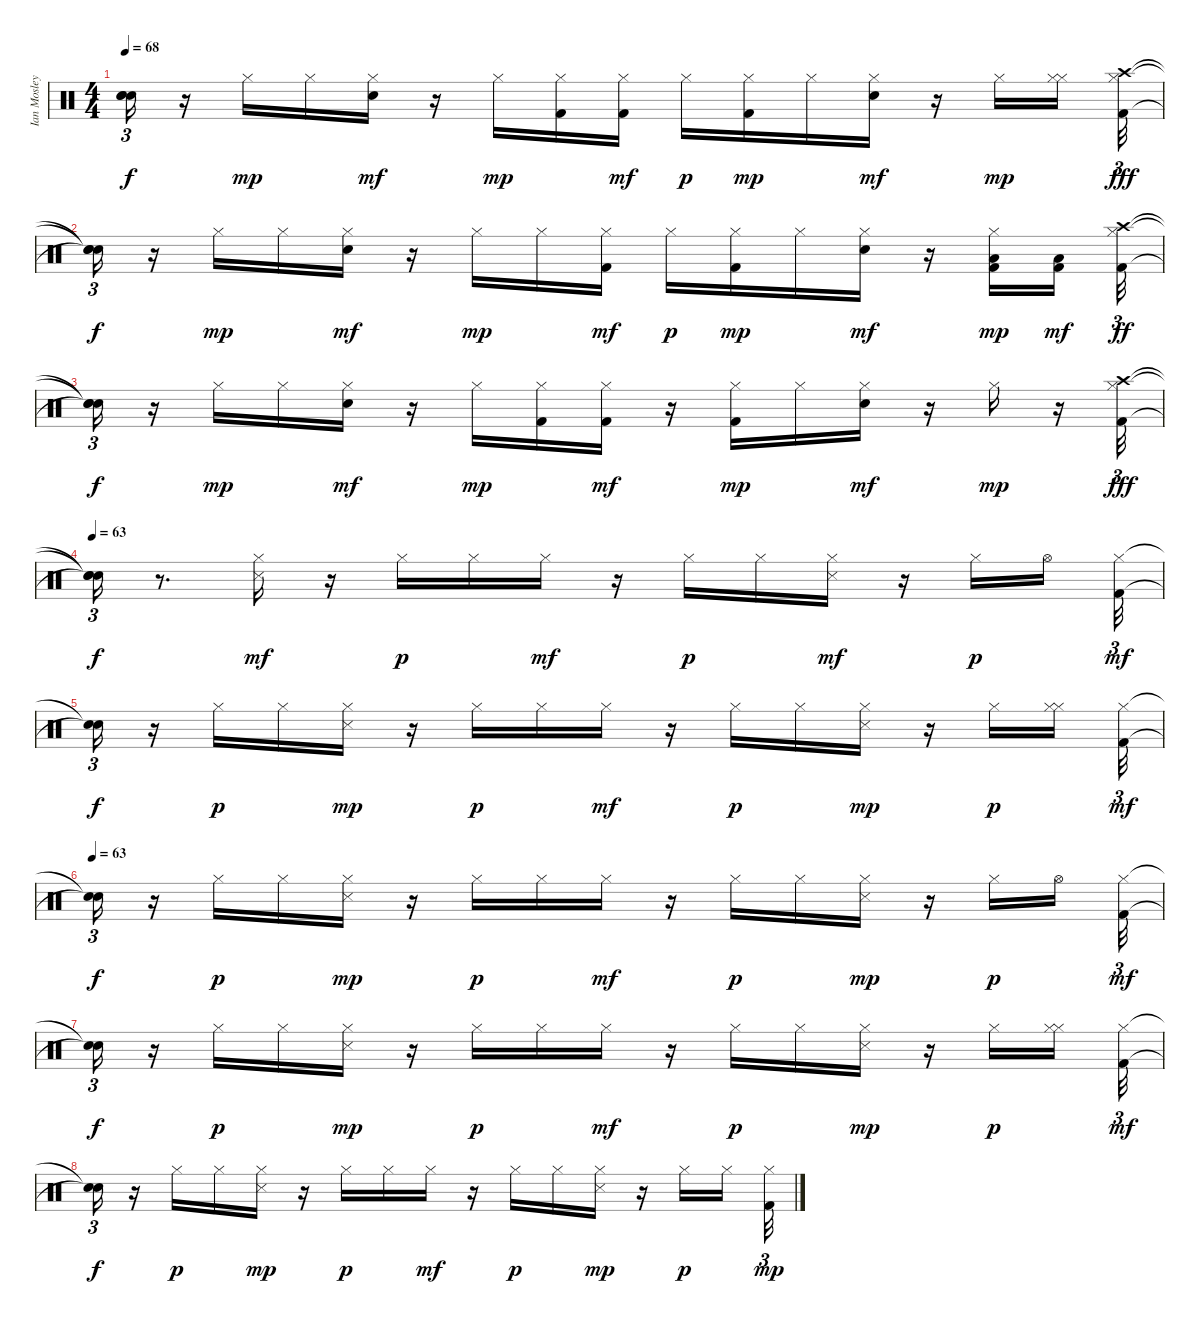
\track ("Ian Mosley" "Ian Mosley") {instrument percussion}
\staff {score}
\articulation defaults
\ts (4 4)
\tempo 68
\clef neutral
\ks c
("Snare (hit)"{t} "Snare (hit)"{t} "Snare (hit)"{t}).16{tu (3 2) dy f} r.16 "Hi-Hat (closed)".16{dy mp} "Hi-Hat (closed)".16 ("Snare (hit) 2" "Hi-Hat (closed)").16{dy mf} r.16 "Hi-Hat (closed)".16{dy mp} ("Kick (hit) 2" "Hi-Hat (closed)").16 ("Kick (hit) 2" "Hi-Hat (closed)").16{dy mf} "Hi-Hat (closed)".16{dy p} ("Kick (hit) 2" "Hi-Hat (closed)").16{dy mp} "Hi-Hat (closed)".16 ("Snare (hit) 2" "Hi-Hat (closed)").16{dy mf} r.16 "Hi-Hat (closed)".16{dy mp} ("Hi-Hat (closed)" "Hi-Hat (closed)").16{beam splitsecondary} ("Kick (hit) 2" "Hi-Hat (closed)" "Crash high (hit)").32{tu (3 2) dy fff} |
("Snare (hit)"{t} "Snare (hit)"{t} "Snare (hit)"{t}).16{tu (3 2) dy f} r.16 "Hi-Hat (closed)".16{dy mp} "Hi-Hat (closed)".16 ("Snare (hit) 2" "Hi-Hat (closed)").16{dy mf} r.16 "Hi-Hat (closed)".16{dy mp} "Hi-Hat (closed)".16 ("Kick (hit) 2" "Hi-Hat (closed)").16{dy mf} "Hi-Hat (closed)".16{dy p} ("Kick (hit) 2" "Hi-Hat (closed)").16{dy mp} "Hi-Hat (closed)".16 ("Snare (hit) 2" "Hi-Hat (closed)").16{dy mf} r.16 ("Low Floor Tom (hit)" "Kick (hit) 2" "Hi-Hat (closed)").16{dy mp} ("Kick (hit) 2" "Low Floor Tom (hit)").16{dy mf beam splitsecondary} ("Kick (hit) 2" "Hi-Hat (closed)" "Crash high (hit)").32{tu (3 2) dy ff} |
("Snare (hit)"{t} "Snare (hit)"{t} "Snare (hit)"{t}).16{tu (3 2) dy f} r.16 "Hi-Hat (closed)".16{dy mp} "Hi-Hat (closed)".16 ("Snare (hit) 2" "Hi-Hat (closed)").16{dy mf} r.16 "Hi-Hat (closed)".16{dy mp} ("Kick (hit) 2" "Hi-Hat (closed)").16 ("Kick (hit) 2" "Hi-Hat (closed)").16{dy mf} r.16 ("Kick (hit) 2" "Hi-Hat (closed)").16{dy mp} "Hi-Hat (closed)".16 ("Snare (hit) 2" "Hi-Hat (closed)").16{dy mf} r.16 "Hi-Hat (closed)".16{dy mp} r.16 ("Kick (hit) 2" "Hi-Hat (closed)" "Crash high (hit)").32{tu (3 2) dy fff} |
\tempo 63
("Snare (hit)"{t} "Snare (hit)"{t} "Snare (hit)"{t}).16{tu (3 2) dy f} r.8{d} ("Snare (side stick) 3" "Hi-Hat (closed)").16{dy mf} r.16 "Hi-Hat (closed)".16{dy p} "Hi-Hat (closed)".16 "Hi-Hat (closed)".16{dy mf} r.16 "Hi-Hat (closed)".16{dy p} "Hi-Hat (closed)".16 ("Snare (side stick) 3" "Hi-Hat (closed)").16{dy mf} r.16 "Hi-Hat (closed)".16{dy p} "Hi-Hat (open)".16{beam splitsecondary} ("Kick (hit) 2" "Hi-Hat (closed)").32{tu (3 2) dy mf} |
("Snare (hit)"{t} "Snare (hit)"{t}).16{tu (3 2) dy f} r.16 "Hi-Hat (closed)".16{dy p} "Hi-Hat (closed)".16 ("Snare (side stick) 3" "Hi-Hat (closed)").16{dy mp} r.16 "Hi-Hat (closed)".16{dy p} "Hi-Hat (closed)".16 "Hi-Hat (closed)".16{dy mf} r.16 "Hi-Hat (closed)".16{dy p} "Hi-Hat (closed)".16 ("Snare (side stick) 3" "Hi-Hat (closed)").16{dy mp} r.16 "Hi-Hat (closed)".16{dy p} ("Hi-Hat (closed)" "Hi-Hat (closed)").16{beam splitsecondary} ("Kick (hit) 2" "Hi-Hat (closed)").32{tu (3 2) dy mf} |
\tempo 63
("Snare (hit)"{t} "Snare (hit)"{t}).16{tu (3 2) dy f} r.16 "Hi-Hat (closed)".16{dy p} "Hi-Hat (closed)".16 ("Snare (side stick) 3" "Hi-Hat (closed)").16{dy mp} r.16 "Hi-Hat (closed)".16{dy p} "Hi-Hat (closed)".16 "Hi-Hat (closed)".16{dy mf} r.16 "Hi-Hat (closed)".16{dy p} "Hi-Hat (closed)".16 ("Snare (side stick) 3" "Hi-Hat (closed)").16{dy mp} r.16 "Hi-Hat (closed)".16{dy p} "Hi-Hat (open)".16{beam splitsecondary} ("Kick (hit) 2" "Hi-Hat (closed)").32{tu (3 2) dy mf} |
("Snare (hit)"{t} "Snare (hit)"{t}).16{tu (3 2) dy f} r.16 "Hi-Hat (closed)".16{dy p} "Hi-Hat (closed)".16 ("Snare (side stick) 3" "Hi-Hat (closed)").16{dy mp} r.16 "Hi-Hat (closed)".16{dy p} "Hi-Hat (closed)".16 "Hi-Hat (closed)".16{dy mf} r.16 "Hi-Hat (closed)".16{dy p} "Hi-Hat (closed)".16 ("Snare (side stick) 3" "Hi-Hat (closed)").16{dy mp} r.16 "Hi-Hat (closed)".16{dy p} ("Hi-Hat (closed)" "Hi-Hat (closed)").16{beam splitsecondary} ("Kick (hit) 2" "Hi-Hat (closed)").32{tu (3 2) dy mf} |
("Snare (hit)"{t} "Snare (hit)"{t}).16{tu (3 2) dy f} r.16 "Hi-Hat (closed)".16{dy p} "Hi-Hat (closed)".16 ("Snare (side stick) 3" "Hi-Hat (closed)").16{dy mp} r.16 "Hi-Hat (closed)".16{dy p} "Hi-Hat (closed)".16 "Hi-Hat (closed)".16{dy mf} r.16 "Hi-Hat (closed)".16{dy p} "Hi-Hat (closed)".16 ("Snare (side stick) 3" "Hi-Hat (closed)").16{dy mp} r.16 "Hi-Hat (closed)".16{dy p} "Hi-Hat (closed)".16{beam splitsecondary} ("Kick (hit) 2" "Hi-Hat (closed)").32{tu (3 2) dy mp}
